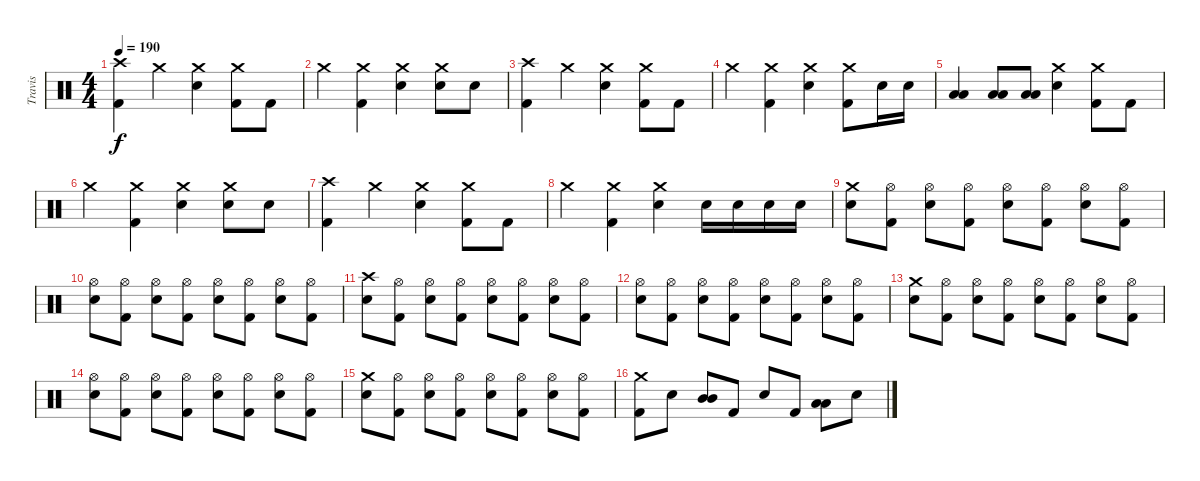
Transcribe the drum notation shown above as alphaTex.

\track ("Travis" "Travis") {instrument percussion}
\staff {score}
\articulation defaults
\ts (4 4)
\tempo 190
\clef neutral
\ks c
("Crash high (hit)" "Kick (hit) 2").4{dy f} "Crash medium (hit)".4 ("Crash medium (hit)" "Electric Snare (hit)").4 ("Crash medium (hit)" "Kick (hit) 2").8 "Kick (hit) 2".8 |
"Crash medium (hit)".4 ("Crash medium (hit)" "Kick (hit) 2").4 ("Crash medium (hit)" "Electric Snare (hit)").4 ("Crash medium (hit)" "Electric Snare (hit)").8 "Electric Snare (hit)".8 |
("Crash high (hit)" "Kick (hit) 2").4 "Crash medium (hit)".4 ("Crash medium (hit)" "Electric Snare (hit)").4 ("Crash medium (hit)" "Kick (hit) 2").8 "Kick (hit) 2".8 |
"Crash medium (hit)".4 ("Crash medium (hit)" "Kick (hit) 2").4 ("Crash medium (hit)" "Electric Snare (hit)").4 ("Crash medium (hit)" "Kick (hit) 2").8 "Electric Snare (hit)".16 "Electric Snare (hit)".16 |
("Low Tom (hit)" "Low Tom (hit)").4 ("Low Tom (hit)" "Low Tom (hit)").8 ("Low Tom (hit)" "Low Tom (hit)").8 ("Crash medium (hit)" "Electric Snare (hit)").4 ("Crash medium (hit)" "Kick (hit) 2").8 "Kick (hit) 2".8 |
"Crash medium (hit)".4 ("Crash medium (hit)" "Kick (hit) 2").4 ("Crash medium (hit)" "Electric Snare (hit)").4 ("Crash medium (hit)" "Electric Snare (hit)").8 "Electric Snare (hit)".8 |
("Crash high (hit)" "Kick (hit) 2").4 "Crash medium (hit)".4 ("Crash medium (hit)" "Electric Snare (hit)").4 ("Crash medium (hit)" "Kick (hit) 2").8 "Kick (hit) 2".8 |
"Crash medium (hit)".4 ("Crash medium (hit)" "Kick (hit) 2").4 ("Crash medium (hit)" "Electric Snare (hit)").4 "Electric Snare (hit)".16 "Electric Snare (hit)".16 "Electric Snare (hit)".16 "Electric Snare (hit)".16 |
("Crash medium (hit)" "Electric Snare (hit)").8 ("Hi-Hat (open)" "Kick (hit) 2").8 ("Hi-Hat (open)" "Electric Snare (hit)").8 ("Hi-Hat (open)" "Kick (hit) 2").8 ("Hi-Hat (open)" "Electric Snare (hit)").8 ("Hi-Hat (open)" "Kick (hit) 2").8 ("Hi-Hat (open)" "Electric Snare (hit)").8 ("Hi-Hat (open)" "Kick (hit) 2").8 |
("Hi-Hat (open)" "Electric Snare (hit)").8 ("Hi-Hat (open)" "Kick (hit) 2").8 ("Hi-Hat (open)" "Electric Snare (hit)").8 ("Hi-Hat (open)" "Kick (hit) 2").8 ("Hi-Hat (open)" "Electric Snare (hit)").8 ("Hi-Hat (open)" "Kick (hit) 2").8 ("Hi-Hat (open)" "Electric Snare (hit)").8 ("Hi-Hat (open)" "Kick (hit) 2").8 |
("Crash high (hit)" "Electric Snare (hit)").8 ("Hi-Hat (open)" "Kick (hit) 2").8 ("Hi-Hat (open)" "Electric Snare (hit)").8 ("Hi-Hat (open)" "Kick (hit) 2").8 ("Hi-Hat (open)" "Electric Snare (hit)").8 ("Hi-Hat (open)" "Kick (hit) 2").8 ("Hi-Hat (open)" "Electric Snare (hit)").8 ("Hi-Hat (open)" "Kick (hit) 2").8 |
("Hi-Hat (open)" "Electric Snare (hit)").8 ("Hi-Hat (open)" "Kick (hit) 2").8 ("Hi-Hat (open)" "Electric Snare (hit)").8 ("Hi-Hat (open)" "Kick (hit) 2").8 ("Hi-Hat (open)" "Electric Snare (hit)").8 ("Hi-Hat (open)" "Kick (hit) 2").8 ("Hi-Hat (open)" "Electric Snare (hit)").8 ("Hi-Hat (open)" "Kick (hit) 2").8 |
("Crash medium (hit)" "Electric Snare (hit)").8 ("Hi-Hat (open)" "Kick (hit) 2").8 ("Hi-Hat (open)" "Electric Snare (hit)").8 ("Hi-Hat (open)" "Kick (hit) 2").8 ("Hi-Hat (open)" "Electric Snare (hit)").8 ("Hi-Hat (open)" "Kick (hit) 2").8 ("Hi-Hat (open)" "Electric Snare (hit)").8 ("Hi-Hat (open)" "Kick (hit) 2").8 |
("Hi-Hat (open)" "Electric Snare (hit)").8 ("Hi-Hat (open)" "Kick (hit) 2").8 ("Hi-Hat (open)" "Electric Snare (hit)").8 ("Hi-Hat (open)" "Kick (hit) 2").8 ("Hi-Hat (open)" "Electric Snare (hit)").8 ("Hi-Hat (open)" "Kick (hit) 2").8 ("Hi-Hat (open)" "Electric Snare (hit)").8 ("Hi-Hat (open)" "Kick (hit) 2").8 |
("Crash medium (hit)" "Electric Snare (hit)").8 ("Hi-Hat (open)" "Kick (hit) 2").8 ("Hi-Hat (open)" "Electric Snare (hit)").8 ("Hi-Hat (open)" "Kick (hit) 2").8 ("Hi-Hat (open)" "Electric Snare (hit)").8 ("Hi-Hat (open)" "Kick (hit) 2").8 ("Hi-Hat (open)" "Electric Snare (hit)").8 ("Hi-Hat (open)" "Kick (hit) 2").8 |
("Crash medium (hit)" "Kick (hit) 2").8 "Electric Snare (hit)".8 ("Mid Tom (hit)" "Mid Tom (hit)").8 "Kick (hit) 2".8 "Electric Snare (hit)".8 "Kick (hit) 2".8 ("Low Tom (hit)" "Low Tom (hit)").8 "Electric Snare (hit)".8
